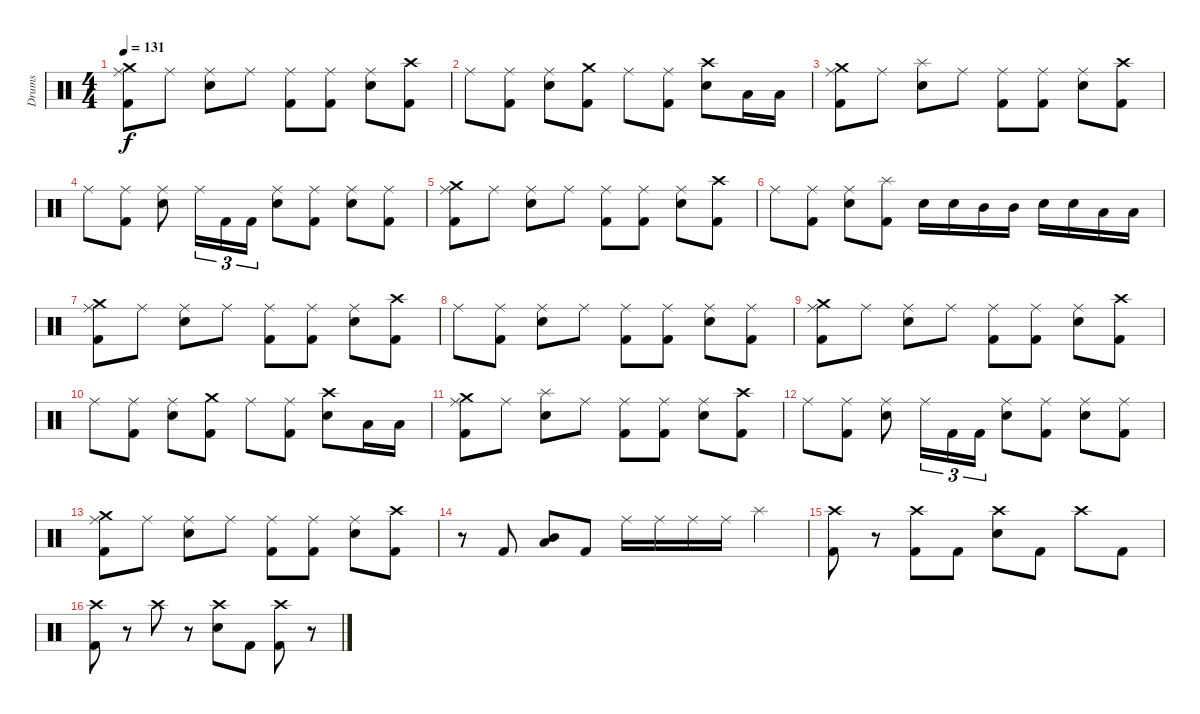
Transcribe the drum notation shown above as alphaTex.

\track ("Drums" "Drums") {instrument percussion}
\staff {score}
\articulation defaults
\ts (4 4)
\tempo 131
\clef neutral
\ks c
("Crash medium (hit)" "Ride (middle)" "Kick (hit) 2").8{dy f} "Ride (middle)".8 ("Ride (middle)" "Electric Snare (hit)").8 "Ride (middle)".8 ("Ride (middle)" "Kick (hit) 2").8 ("Ride (middle)" "Kick (hit) 2").8 ("Ride (middle)" "Electric Snare (hit)").8 ("Crash high (hit)" "Kick (hit) 2").8 |
"Ride (middle)".8 ("Ride (middle)" "Kick (hit) 2").8 ("Ride (middle)" "Electric Snare (hit)").8 ("Crash medium (hit)" "Kick (hit) 2").8 "Ride (middle)".8 ("Ride (middle)" "Kick (hit) 2").8 ("Crash high (hit)" "Electric Snare (hit)").8 "Low Tom (hit)".16 "Low Tom (hit)".16 |
("Crash medium (hit)" "Ride (middle)" "Kick (hit) 2").8 "Ride (middle)".8 ("Splash (hit)" "Electric Snare (hit)").8 "Ride (middle)".8 ("Ride (middle)" "Kick (hit) 2").8 ("Ride (middle)" "Kick (hit) 2").8 ("Ride (middle)" "Electric Snare (hit)").8 ("Crash high (hit)" "Kick (hit) 2").8 |
"Ride (middle)".8 ("Ride (middle)" "Kick (hit) 2").8 ("Ride (middle)" "Electric Snare (hit)").8 "Ride (middle)".16{tu (3 2)} "Kick (hit) 2".16{tu (3 2)} "Kick (hit) 2".16{tu (3 2)} ("Ride (middle)" "Electric Snare (hit)").8 ("Ride (middle)" "Kick (hit) 2").8 ("Ride (middle)" "Electric Snare (hit)").8 ("Ride (middle)" "Kick (hit) 2").8 |
("Crash medium (hit)" "Ride (middle)" "Kick (hit) 2").8 "Ride (middle)".8 ("Ride (middle)" "Electric Snare (hit)").8 "Ride (middle)".8 ("Ride (middle)" "Kick (hit) 2").8 ("Ride (middle)" "Kick (hit) 2").8 ("Ride (middle)" "Electric Snare (hit)").8 ("Crash high (hit)" "Kick (hit) 2").8 |
"Ride (middle)".8 ("Ride (middle)" "Kick (hit) 2").8 ("Ride (middle)" "Electric Snare (hit)").8 ("Splash (hit)" "Kick (hit) 2").8 "Electric Snare (hit)".16 "Electric Snare (hit)".16 "Mid Tom (hit)".16 "Mid Tom (hit)".16 "Electric Snare (hit)".16 "Electric Snare (hit)".16 "Low Tom (hit)".16 "Low Tom (hit)".16 |
("Crash medium (hit)" "Ride (middle)" "Kick (hit) 2").8 "Ride (middle)".8 ("Ride (middle)" "Electric Snare (hit)").8 "Ride (middle)".8 ("Ride (middle)" "Kick (hit) 2").8 ("Ride (middle)" "Kick (hit) 2").8 ("Ride (middle)" "Electric Snare (hit)").8 ("Crash high (hit)" "Kick (hit) 2").8 |
"Ride (middle)".8 ("Ride (middle)" "Kick (hit) 2").8 ("Ride (middle)" "Electric Snare (hit)").8 "Ride (middle)".8 ("Ride (middle)" "Kick (hit) 2").8 ("Ride (middle)" "Kick (hit) 2").8 ("Ride (middle)" "Electric Snare (hit)").8 ("Ride (middle)" "Kick (hit) 2").8 |
("Crash medium (hit)" "Ride (middle)" "Kick (hit) 2").8 "Ride (middle)".8 ("Ride (middle)" "Electric Snare (hit)").8 "Ride (middle)".8 ("Ride (middle)" "Kick (hit) 2").8 ("Ride (middle)" "Kick (hit) 2").8 ("Ride (middle)" "Electric Snare (hit)").8 ("Crash high (hit)" "Kick (hit) 2").8 |
"Ride (middle)".8 ("Ride (middle)" "Kick (hit) 2").8 ("Ride (middle)" "Electric Snare (hit)").8 ("Crash medium (hit)" "Kick (hit) 2").8 "Ride (middle)".8 ("Ride (middle)" "Kick (hit) 2").8 ("Crash high (hit)" "Electric Snare (hit)").8 "Low Tom (hit)".16 "Low Tom (hit)".16 |
("Crash medium (hit)" "Ride (middle)" "Kick (hit) 2").8 "Ride (middle)".8 ("Splash (hit)" "Electric Snare (hit)").8 "Ride (middle)".8 ("Ride (middle)" "Kick (hit) 2").8 ("Ride (middle)" "Kick (hit) 2").8 ("Ride (middle)" "Electric Snare (hit)").8 ("Crash high (hit)" "Kick (hit) 2").8 |
"Ride (middle)".8 ("Ride (middle)" "Kick (hit) 2").8 ("Ride (middle)" "Electric Snare (hit)").8 "Ride (middle)".16{tu (3 2)} "Kick (hit) 2".16{tu (3 2)} "Kick (hit) 2".16{tu (3 2)} ("Ride (middle)" "Electric Snare (hit)").8 ("Ride (middle)" "Kick (hit) 2").8 ("Ride (middle)" "Electric Snare (hit)").8 ("Ride (middle)" "Kick (hit) 2").8 |
("Crash medium (hit)" "Ride (middle)" "Kick (hit) 2").8 "Ride (middle)".8 ("Ride (middle)" "Electric Snare (hit)").8 "Ride (middle)".8 ("Ride (middle)" "Kick (hit) 2").8 ("Ride (middle)" "Kick (hit) 2").8 ("Ride (middle)" "Electric Snare (hit)").8 ("Crash high (hit)" "Kick (hit) 2").8 |
r.8 "Kick (hit) 2".8 ("Mid Tom (hit)" "Low Floor Tom (hit)").8 "Kick (hit) 2".8 "Ride (middle)".16 "Ride (middle)".16 "Ride (middle)".16 "Ride (middle)".16 "Splash (hit)".4 |
("Crash high (hit)" "Kick (hit) 2").8 r.8 ("Crash high (hit)" "Kick (hit) 2").8 "Kick (hit) 2".8 ("Crash high (hit)" "Electric Snare (hit)").8 "Kick (hit) 2".8 "Crash high (hit)".8 "Kick (hit) 2".8 |
("Crash high (hit)" "Kick (hit) 2").8 r.8 "Crash high (hit)".8 r.8 ("Crash high (hit)" "Electric Snare (hit)").8 "Kick (hit) 2".8 ("Crash high (hit)" "Kick (hit) 2").8 r.8
